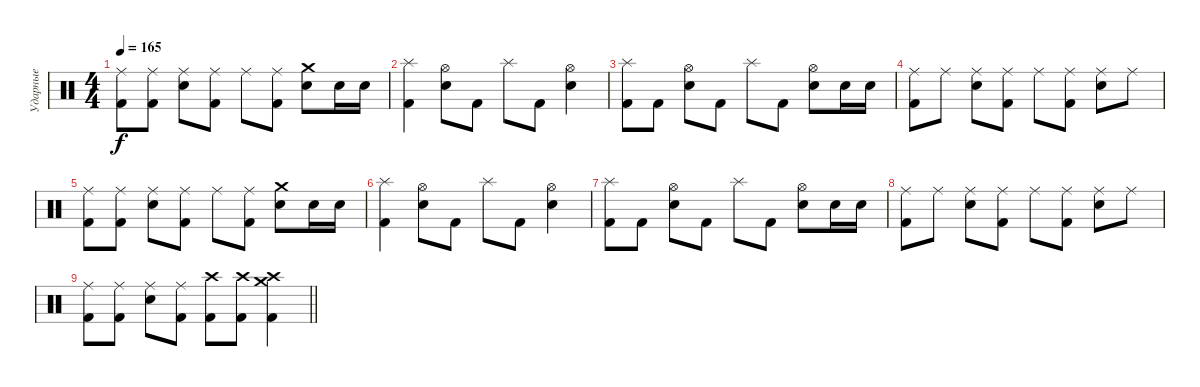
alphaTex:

\track ("Ударные" "Ударные") {instrument percussion}
\staff {score}
\articulation defaults
\ts (4 4)
\tempo 165
\clef neutral
\ks c
("Ride (middle)" "Kick (hit) 2").8{dy f} ("Ride (middle)" "Kick (hit) 2").8 ("Ride (middle)" "Electric Snare (hit)").8 ("Ride (middle)" "Kick (hit) 2").8 "Ride (middle)".8 ("Ride (middle)" "Kick (hit) 2").8 ("Crash medium (hit)" "Electric Snare (hit)").8 "Electric Snare (hit)".16 "Electric Snare (hit)".16 |
("Splash (hit)" "Kick (hit) 2").4 ("Hi-Hat (open)" "Electric Snare (hit)").8 "Kick (hit) 2".8 "Splash (hit)".8 "Kick (hit) 2".8 ("Hi-Hat (open)" "Electric Snare (hit)").4 |
("Splash (hit)" "Kick (hit) 2").8 "Kick (hit) 2".8 ("Hi-Hat (open)" "Electric Snare (hit)").8 "Kick (hit) 2".8 "Splash (hit)".8 "Kick (hit) 2".8 ("Hi-Hat (open)" "Electric Snare (hit)").8 "Electric Snare (hit)".16 "Electric Snare (hit)".16 |
("Ride (middle)" "Kick (hit) 2").8 "Ride (middle)".8 ("Ride (middle)" "Electric Snare (hit)").8 ("Ride (middle)" "Kick (hit) 2").8 "Ride (middle)".8 ("Ride (middle)" "Kick (hit) 2").8 ("Ride (middle)" "Electric Snare (hit)").8 "Ride (middle)".8 |
("Ride (middle)" "Kick (hit) 2").8 ("Ride (middle)" "Kick (hit) 2").8 ("Ride (middle)" "Electric Snare (hit)").8 ("Ride (middle)" "Kick (hit) 2").8 "Ride (middle)".8 ("Ride (middle)" "Kick (hit) 2").8 ("Crash medium (hit)" "Electric Snare (hit)").8 "Electric Snare (hit)".16 "Electric Snare (hit)".16 |
("Splash (hit)" "Kick (hit) 2").4 ("Hi-Hat (open)" "Electric Snare (hit)").8 "Kick (hit) 2".8 "Splash (hit)".8 "Kick (hit) 2".8 ("Hi-Hat (open)" "Electric Snare (hit)").4 |
("Splash (hit)" "Kick (hit) 2").8 "Kick (hit) 2".8 ("Hi-Hat (open)" "Electric Snare (hit)").8 "Kick (hit) 2".8 "Splash (hit)".8 "Kick (hit) 2".8 ("Hi-Hat (open)" "Electric Snare (hit)").8 "Electric Snare (hit)".16 "Electric Snare (hit)".16 |
("Ride (middle)" "Kick (hit) 2").8 "Ride (middle)".8 ("Ride (middle)" "Electric Snare (hit)").8 ("Ride (middle)" "Kick (hit) 2").8 "Ride (middle)".8 ("Ride (middle)" "Kick (hit) 2").8 ("Ride (middle)" "Electric Snare (hit)").8 "Ride (middle)".8 |
\barLineRight lightlight
("Ride (middle)" "Kick (hit) 2").8 ("Ride (middle)" "Kick (hit) 2").8 ("Ride (middle)" "Electric Snare (hit)").8 ("Ride (middle)" "Kick (hit) 2").8 ("Crash high (hit)" "Kick (hit) 2").8 ("Crash high (hit)" "Kick (hit) 2").8 ("Crash medium (hit)" "Crash high (hit)" "Kick (hit) 2").4
